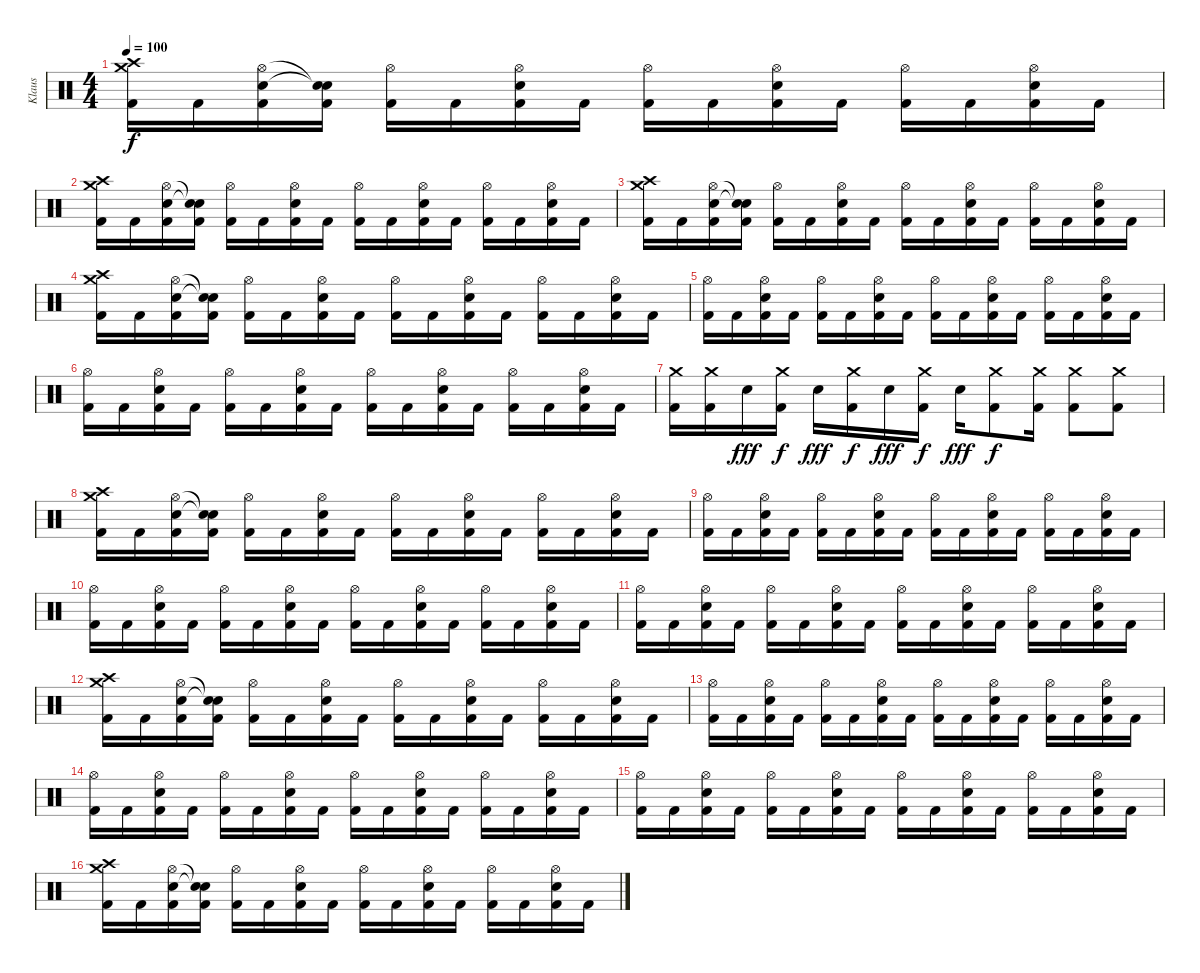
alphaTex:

\track ("Klaus" "Klaus") {instrument percussion}
\staff {score}
\articulation defaults
\ts (4 4)
\tempo 100
\clef neutral
\ks c
("Crash high (hit)" "Crash medium (hit)" "Kick (hit) 2").16{dy f} "Kick (hit) 2".16 ("Hi-Hat (open)" "Electric Snare (hit)" "Kick (hit) 2").16 ("Snare (hit)"{t} "Snare (hit)"{t} "Kick (hit) 2").16 ("Hi-Hat (open)" "Kick (hit) 2").16 "Kick (hit) 2".16 ("Hi-Hat (open)" "Electric Snare (hit)" "Kick (hit) 2").16 "Kick (hit) 2".16 ("Hi-Hat (open)" "Kick (hit) 2").16 "Kick (hit) 2".16 ("Hi-Hat (open)" "Electric Snare (hit)" "Kick (hit) 2").16 "Kick (hit) 2".16 ("Hi-Hat (open)" "Kick (hit) 2").16 "Kick (hit) 2".16 ("Hi-Hat (open)" "Electric Snare (hit)" "Kick (hit) 2").16 "Kick (hit) 2".16 |
("Crash high (hit)" "Crash medium (hit)" "Kick (hit) 2").16 "Kick (hit) 2".16 ("Hi-Hat (open)" "Electric Snare (hit)" "Kick (hit) 2").16 ("Snare (hit)"{t} "Snare (hit)"{t} "Kick (hit) 2").16 ("Hi-Hat (open)" "Kick (hit) 2").16 "Kick (hit) 2".16 ("Hi-Hat (open)" "Electric Snare (hit)" "Kick (hit) 2").16 "Kick (hit) 2".16 ("Hi-Hat (open)" "Kick (hit) 2").16 "Kick (hit) 2".16 ("Hi-Hat (open)" "Electric Snare (hit)" "Kick (hit) 2").16 "Kick (hit) 2".16 ("Hi-Hat (open)" "Kick (hit) 2").16 "Kick (hit) 2".16 ("Hi-Hat (open)" "Electric Snare (hit)" "Kick (hit) 2").16 "Kick (hit) 2".16 |
("Crash high (hit)" "Crash medium (hit)" "Kick (hit) 2").16 "Kick (hit) 2".16 ("Hi-Hat (open)" "Electric Snare (hit)" "Kick (hit) 2").16 ("Snare (hit)"{t} "Snare (hit)"{t} "Kick (hit) 2").16 ("Hi-Hat (open)" "Kick (hit) 2").16 "Kick (hit) 2".16 ("Hi-Hat (open)" "Electric Snare (hit)" "Kick (hit) 2").16 "Kick (hit) 2".16 ("Hi-Hat (open)" "Kick (hit) 2").16 "Kick (hit) 2".16 ("Hi-Hat (open)" "Electric Snare (hit)" "Kick (hit) 2").16 "Kick (hit) 2".16 ("Hi-Hat (open)" "Kick (hit) 2").16 "Kick (hit) 2".16 ("Hi-Hat (open)" "Electric Snare (hit)" "Kick (hit) 2").16 "Kick (hit) 2".16 |
("Crash high (hit)" "Crash medium (hit)" "Kick (hit) 2").16 "Kick (hit) 2".16 ("Hi-Hat (open)" "Electric Snare (hit)" "Kick (hit) 2").16 ("Snare (hit)"{t} "Snare (hit)"{t} "Kick (hit) 2").16 ("Hi-Hat (open)" "Kick (hit) 2").16 "Kick (hit) 2".16 ("Hi-Hat (open)" "Electric Snare (hit)" "Kick (hit) 2").16 "Kick (hit) 2".16 ("Hi-Hat (open)" "Kick (hit) 2").16 "Kick (hit) 2".16 ("Hi-Hat (open)" "Electric Snare (hit)" "Kick (hit) 2").16 "Kick (hit) 2".16 ("Hi-Hat (open)" "Kick (hit) 2").16 "Kick (hit) 2".16 ("Hi-Hat (open)" "Electric Snare (hit)" "Kick (hit) 2").16 "Kick (hit) 2".16 |
("Hi-Hat (open)" "Kick (hit) 2").16 "Kick (hit) 2".16 ("Hi-Hat (open)" "Electric Snare (hit)" "Kick (hit) 2").16 "Kick (hit) 2".16 ("Hi-Hat (open)" "Kick (hit) 2").16 "Kick (hit) 2".16 ("Hi-Hat (open)" "Electric Snare (hit)" "Kick (hit) 2").16 "Kick (hit) 2".16 ("Hi-Hat (open)" "Kick (hit) 2").16 "Kick (hit) 2".16 ("Hi-Hat (open)" "Electric Snare (hit)" "Kick (hit) 2").16 "Kick (hit) 2".16 ("Hi-Hat (open)" "Kick (hit) 2").16 "Kick (hit) 2".16 ("Hi-Hat (open)" "Electric Snare (hit)" "Kick (hit) 2").16 "Kick (hit) 2".16 |
("Hi-Hat (open)" "Kick (hit) 2").16 "Kick (hit) 2".16 ("Hi-Hat (open)" "Electric Snare (hit)" "Kick (hit) 2").16 "Kick (hit) 2".16 ("Hi-Hat (open)" "Kick (hit) 2").16 "Kick (hit) 2".16 ("Hi-Hat (open)" "Electric Snare (hit)" "Kick (hit) 2").16 "Kick (hit) 2".16 ("Hi-Hat (open)" "Kick (hit) 2").16 "Kick (hit) 2".16 ("Hi-Hat (open)" "Electric Snare (hit)" "Kick (hit) 2").16 "Kick (hit) 2".16 ("Hi-Hat (open)" "Kick (hit) 2").16 "Kick (hit) 2".16 ("Hi-Hat (open)" "Electric Snare (hit)" "Kick (hit) 2").16 "Kick (hit) 2".16 |
("Crash medium (hit)" "Kick (hit) 2").16 ("Crash medium (hit)" "Kick (hit) 2").16 "Electric Snare (hit)".16{dy fff} ("Crash medium (hit)" "Kick (hit) 2").16{dy f} "Electric Snare (hit)".16{dy fff} ("Crash medium (hit)" "Kick (hit) 2").16{dy f} "Electric Snare (hit)".16{dy fff} ("Crash medium (hit)" "Kick (hit) 2").16{dy f} "Electric Snare (hit)".16{dy fff} ("Crash medium (hit)" "Kick (hit) 2").8{dy f} ("Crash medium (hit)" "Kick (hit) 2").16 ("Crash medium (hit)" "Kick (hit) 2").8 ("Crash medium (hit)" "Kick (hit) 2").8 |
("Crash high (hit)" "Crash medium (hit)" "Kick (hit) 2").16 "Kick (hit) 2".16 ("Hi-Hat (open)" "Electric Snare (hit)" "Kick (hit) 2").16 ("Snare (hit)"{t} "Snare (hit)"{t} "Kick (hit) 2").16 ("Hi-Hat (open)" "Kick (hit) 2").16 "Kick (hit) 2".16 ("Hi-Hat (open)" "Electric Snare (hit)" "Kick (hit) 2").16 "Kick (hit) 2".16 ("Hi-Hat (open)" "Kick (hit) 2").16 "Kick (hit) 2".16 ("Hi-Hat (open)" "Electric Snare (hit)" "Kick (hit) 2").16 "Kick (hit) 2".16 ("Hi-Hat (open)" "Kick (hit) 2").16 "Kick (hit) 2".16 ("Hi-Hat (open)" "Electric Snare (hit)" "Kick (hit) 2").16 "Kick (hit) 2".16 |
("Hi-Hat (open)" "Kick (hit) 2").16 "Kick (hit) 2".16 ("Hi-Hat (open)" "Electric Snare (hit)" "Kick (hit) 2").16 "Kick (hit) 2".16 ("Hi-Hat (open)" "Kick (hit) 2").16 "Kick (hit) 2".16 ("Hi-Hat (open)" "Electric Snare (hit)" "Kick (hit) 2").16 "Kick (hit) 2".16 ("Hi-Hat (open)" "Kick (hit) 2").16 "Kick (hit) 2".16 ("Hi-Hat (open)" "Electric Snare (hit)" "Kick (hit) 2").16 "Kick (hit) 2".16 ("Hi-Hat (open)" "Kick (hit) 2").16 "Kick (hit) 2".16 ("Hi-Hat (open)" "Electric Snare (hit)" "Kick (hit) 2").16 "Kick (hit) 2".16 |
("Hi-Hat (open)" "Kick (hit) 2").16 "Kick (hit) 2".16 ("Hi-Hat (open)" "Electric Snare (hit)" "Kick (hit) 2").16 "Kick (hit) 2".16 ("Hi-Hat (open)" "Kick (hit) 2").16 "Kick (hit) 2".16 ("Hi-Hat (open)" "Electric Snare (hit)" "Kick (hit) 2").16 "Kick (hit) 2".16 ("Hi-Hat (open)" "Kick (hit) 2").16 "Kick (hit) 2".16 ("Hi-Hat (open)" "Electric Snare (hit)" "Kick (hit) 2").16 "Kick (hit) 2".16 ("Hi-Hat (open)" "Kick (hit) 2").16 "Kick (hit) 2".16 ("Hi-Hat (open)" "Electric Snare (hit)" "Kick (hit) 2").16 "Kick (hit) 2".16 |
("Hi-Hat (open)" "Kick (hit) 2").16 "Kick (hit) 2".16 ("Hi-Hat (open)" "Electric Snare (hit)" "Kick (hit) 2").16 "Kick (hit) 2".16 ("Hi-Hat (open)" "Kick (hit) 2").16 "Kick (hit) 2".16 ("Hi-Hat (open)" "Electric Snare (hit)" "Kick (hit) 2").16 "Kick (hit) 2".16 ("Hi-Hat (open)" "Kick (hit) 2").16 "Kick (hit) 2".16 ("Hi-Hat (open)" "Electric Snare (hit)" "Kick (hit) 2").16 "Kick (hit) 2".16 ("Hi-Hat (open)" "Kick (hit) 2").16 "Kick (hit) 2".16 ("Hi-Hat (open)" "Electric Snare (hit)" "Kick (hit) 2").16 "Kick (hit) 2".16 |
("Crash high (hit)" "Crash medium (hit)" "Kick (hit) 2").16 "Kick (hit) 2".16 ("Hi-Hat (open)" "Electric Snare (hit)" "Kick (hit) 2").16 ("Snare (hit)"{t} "Snare (hit)"{t} "Kick (hit) 2").16 ("Hi-Hat (open)" "Kick (hit) 2").16 "Kick (hit) 2".16 ("Hi-Hat (open)" "Electric Snare (hit)" "Kick (hit) 2").16 "Kick (hit) 2".16 ("Hi-Hat (open)" "Kick (hit) 2").16 "Kick (hit) 2".16 ("Hi-Hat (open)" "Electric Snare (hit)" "Kick (hit) 2").16 "Kick (hit) 2".16 ("Hi-Hat (open)" "Kick (hit) 2").16 "Kick (hit) 2".16 ("Hi-Hat (open)" "Electric Snare (hit)" "Kick (hit) 2").16 "Kick (hit) 2".16 |
("Hi-Hat (open)" "Kick (hit) 2").16 "Kick (hit) 2".16 ("Hi-Hat (open)" "Electric Snare (hit)" "Kick (hit) 2").16 "Kick (hit) 2".16 ("Hi-Hat (open)" "Kick (hit) 2").16 "Kick (hit) 2".16 ("Hi-Hat (open)" "Electric Snare (hit)" "Kick (hit) 2").16 "Kick (hit) 2".16 ("Hi-Hat (open)" "Kick (hit) 2").16 "Kick (hit) 2".16 ("Hi-Hat (open)" "Electric Snare (hit)" "Kick (hit) 2").16 "Kick (hit) 2".16 ("Hi-Hat (open)" "Kick (hit) 2").16 "Kick (hit) 2".16 ("Hi-Hat (open)" "Electric Snare (hit)" "Kick (hit) 2").16 "Kick (hit) 2".16 |
("Hi-Hat (open)" "Kick (hit) 2").16 "Kick (hit) 2".16 ("Hi-Hat (open)" "Electric Snare (hit)" "Kick (hit) 2").16 "Kick (hit) 2".16 ("Hi-Hat (open)" "Kick (hit) 2").16 "Kick (hit) 2".16 ("Hi-Hat (open)" "Electric Snare (hit)" "Kick (hit) 2").16 "Kick (hit) 2".16 ("Hi-Hat (open)" "Kick (hit) 2").16 "Kick (hit) 2".16 ("Hi-Hat (open)" "Electric Snare (hit)" "Kick (hit) 2").16 "Kick (hit) 2".16 ("Hi-Hat (open)" "Kick (hit) 2").16 "Kick (hit) 2".16 ("Hi-Hat (open)" "Electric Snare (hit)" "Kick (hit) 2").16 "Kick (hit) 2".16 |
("Hi-Hat (open)" "Kick (hit) 2").16 "Kick (hit) 2".16 ("Hi-Hat (open)" "Electric Snare (hit)" "Kick (hit) 2").16 "Kick (hit) 2".16 ("Hi-Hat (open)" "Kick (hit) 2").16 "Kick (hit) 2".16 ("Hi-Hat (open)" "Electric Snare (hit)" "Kick (hit) 2").16 "Kick (hit) 2".16 ("Hi-Hat (open)" "Kick (hit) 2").16 "Kick (hit) 2".16 ("Hi-Hat (open)" "Electric Snare (hit)" "Kick (hit) 2").16 "Kick (hit) 2".16 ("Hi-Hat (open)" "Kick (hit) 2").16 "Kick (hit) 2".16 ("Hi-Hat (open)" "Electric Snare (hit)" "Kick (hit) 2").16 "Kick (hit) 2".16 |
("Crash high (hit)" "Crash medium (hit)" "Kick (hit) 2").16 "Kick (hit) 2".16 ("Hi-Hat (open)" "Electric Snare (hit)" "Kick (hit) 2").16 ("Snare (hit)"{t} "Snare (hit)"{t} "Kick (hit) 2").16 ("Hi-Hat (open)" "Kick (hit) 2").16 "Kick (hit) 2".16 ("Hi-Hat (open)" "Electric Snare (hit)" "Kick (hit) 2").16 "Kick (hit) 2".16 ("Hi-Hat (open)" "Kick (hit) 2").16 "Kick (hit) 2".16 ("Hi-Hat (open)" "Electric Snare (hit)" "Kick (hit) 2").16 "Kick (hit) 2".16 ("Hi-Hat (open)" "Kick (hit) 2").16 "Kick (hit) 2".16 ("Hi-Hat (open)" "Electric Snare (hit)" "Kick (hit) 2").16 "Kick (hit) 2".16
